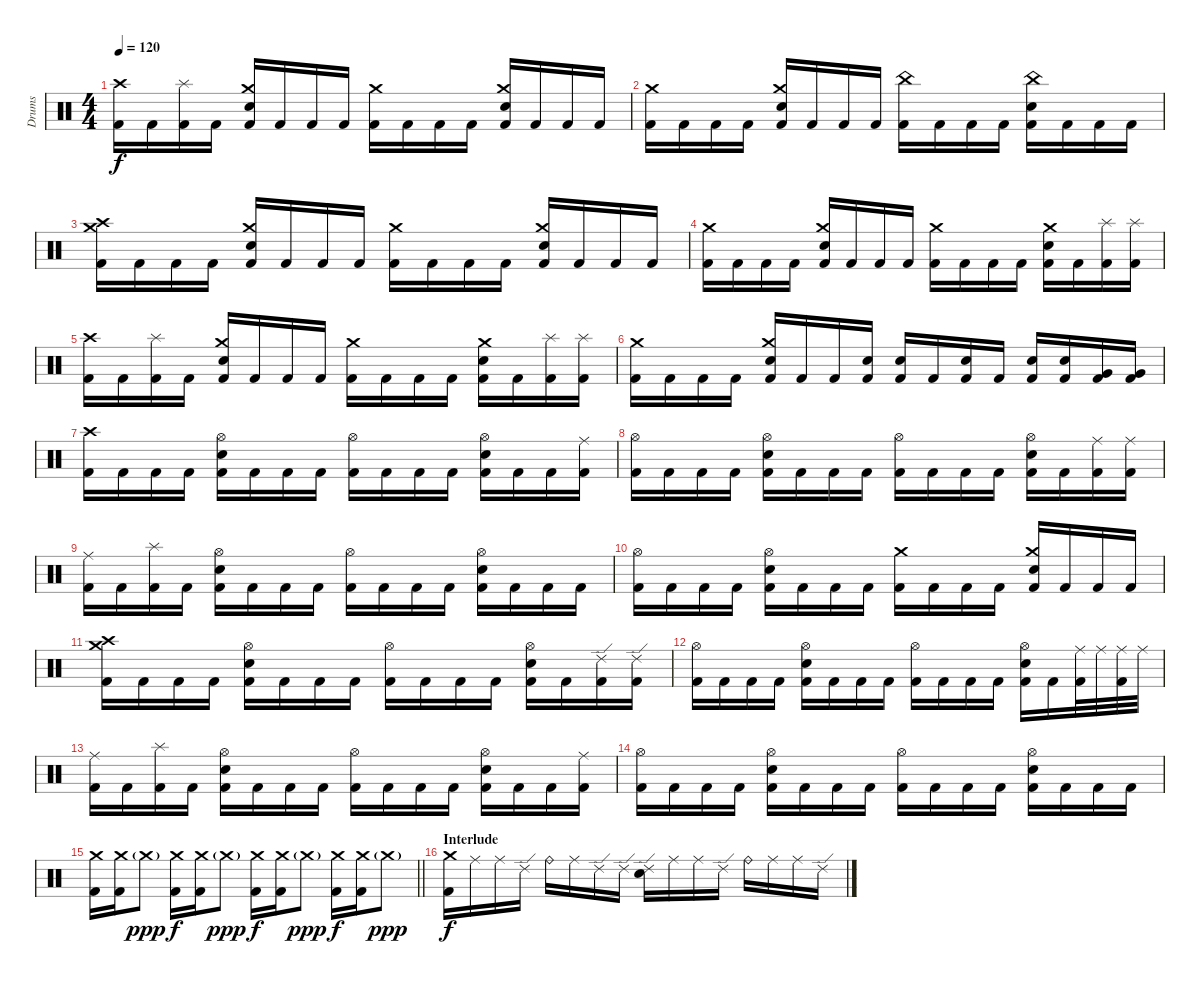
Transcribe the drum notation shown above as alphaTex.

\track ("Drums" "Drums") {instrument percussion}
\staff {score}
\articulation defaults
\ts (4 4)
\tempo 120
\clef neutral
\ks c
("Crash high (hit)" "Kick (hit) 2").16{dy f} "Kick (hit) 2".16 ("Splash (hit)" "Kick (hit) 2").16 "Kick (hit) 2".16 ("Crash medium (hit)" "Electric Snare (hit)" "Kick (hit) 2").16 "Kick (hit) 2".16 "Kick (hit) 2".16 "Kick (hit) 2".16 ("Crash medium (hit)" "Kick (hit) 2").16 "Kick (hit) 2".16 "Kick (hit) 2".16 "Kick (hit) 2".16 ("Crash medium (hit)" "Electric Snare (hit)" "Kick (hit) 2").16 "Kick (hit) 2".16 "Kick (hit) 2".16 "Kick (hit) 2".16 |
("Crash medium (hit)" "Kick (hit) 2").16 "Kick (hit) 2".16 "Kick (hit) 2".16 "Kick (hit) 2".16 ("Crash medium (hit)" "Electric Snare (hit)" "Kick (hit) 2").16 "Kick (hit) 2".16 "Kick (hit) 2".16 "Kick (hit) 2".16 ("China (hit)" "Kick (hit) 2").16 "Kick (hit) 2".16 "Kick (hit) 2".16 "Kick (hit) 2".16 ("China (hit)" "Electric Snare (hit)" "Kick (hit) 2").16 "Kick (hit) 2".16 "Kick (hit) 2".16 "Kick (hit) 2".16 |
("Crash medium (hit)" "Crash high (hit)" "Kick (hit) 2").16 "Kick (hit) 2".16 "Kick (hit) 2".16 "Kick (hit) 2".16 ("Crash medium (hit)" "Electric Snare (hit)" "Kick (hit) 2").16 "Kick (hit) 2".16 "Kick (hit) 2".16 "Kick (hit) 2".16 ("Crash medium (hit)" "Kick (hit) 2").16 "Kick (hit) 2".16 "Kick (hit) 2".16 "Kick (hit) 2".16 ("Crash medium (hit)" "Electric Snare (hit)" "Kick (hit) 2").16 "Kick (hit) 2".16 "Kick (hit) 2".16 "Kick (hit) 2".16 |
("Crash medium (hit)" "Kick (hit) 2").16 "Kick (hit) 2".16 "Kick (hit) 2".16 "Kick (hit) 2".16 ("Crash medium (hit)" "Electric Snare (hit)" "Kick (hit) 2").16 "Kick (hit) 2".16 "Kick (hit) 2".16 "Kick (hit) 2".16 ("Crash medium (hit)" "Kick (hit) 2").16 "Kick (hit) 2".16 "Kick (hit) 2".16 "Kick (hit) 2".16 ("Crash medium (hit)" "Electric Snare (hit)" "Kick (hit) 2").16 "Kick (hit) 2".16 ("Splash (hit)" "Kick (hit) 2").16 ("Splash (hit)" "Kick (hit) 2").16 |
("Crash high (hit)" "Kick (hit) 2").16 "Kick (hit) 2".16 ("Splash (hit)" "Kick (hit) 2").16 "Kick (hit) 2".16 ("Crash medium (hit)" "Electric Snare (hit)" "Kick (hit) 2").16 "Kick (hit) 2".16 "Kick (hit) 2".16 "Kick (hit) 2".16 ("Crash medium (hit)" "Kick (hit) 2").16 "Kick (hit) 2".16 "Kick (hit) 2".16 "Kick (hit) 2".16 ("Crash medium (hit)" "Electric Snare (hit)" "Kick (hit) 2").16 "Kick (hit) 2".16 ("Splash (hit)" "Kick (hit) 2").16 ("Splash (hit)" "Kick (hit) 2").16 |
("Crash medium (hit)" "Kick (hit) 2").16 "Kick (hit) 2".16 "Kick (hit) 2".16 "Kick (hit) 2".16 ("Crash medium (hit)" "Electric Snare (hit)" "Kick (hit) 2").16 "Kick (hit) 2".16 "Kick (hit) 2".16 ("Electric Snare (hit)" "Kick (hit) 2").16 ("Electric Snare (hit)" "Kick (hit) 2").16 "Kick (hit) 2".16 ("Electric Snare (hit)" "Kick (hit) 2").16 "Kick (hit) 2".16 ("Electric Snare (hit)" "Kick (hit) 2").16 ("Electric Snare (hit)" "Kick (hit) 2").16 ("Very Low Tom (hit)" "Kick (hit) 2").16 ("Very Low Tom (hit)" "Kick (hit) 2").16 |
("Crash high (hit)" "Kick (hit) 2").16 "Kick (hit) 2".16 "Kick (hit) 2".16 "Kick (hit) 2".16 ("Hi-Hat (open)" "Electric Snare (hit)" "Kick (hit) 2").16 "Kick (hit) 2".16 "Kick (hit) 2".16 "Kick (hit) 2".16 ("Hi-Hat (open)" "Kick (hit) 2").16 "Kick (hit) 2".16 "Kick (hit) 2".16 "Kick (hit) 2".16 ("Hi-Hat (open)" "Electric Snare (hit)" "Kick (hit) 2").16 "Kick (hit) 2".16 "Kick (hit) 2".16 ("Ride (middle)" "Kick (hit) 2").16 |
("Hi-Hat (open)" "Kick (hit) 2").16 "Kick (hit) 2".16 "Kick (hit) 2".16 "Kick (hit) 2".16 ("Hi-Hat (open)" "Electric Snare (hit)" "Kick (hit) 2").16 "Kick (hit) 2".16 "Kick (hit) 2".16 "Kick (hit) 2".16 ("Hi-Hat (open)" "Kick (hit) 2").16 "Kick (hit) 2".16 "Kick (hit) 2".16 "Kick (hit) 2".16 ("Hi-Hat (open)" "Electric Snare (hit)" "Kick (hit) 2").16 "Kick (hit) 2".16 ("Ride (middle)" "Kick (hit) 2").16 ("Ride (middle)" "Kick (hit) 2").16 |
("Ride (middle)" "Kick (hit) 2").16 "Kick (hit) 2".16 ("Splash (hit)" "Kick (hit) 2").16 "Kick (hit) 2".16 ("Hi-Hat (open)" "Electric Snare (hit)" "Kick (hit) 2").16 "Kick (hit) 2".16 "Kick (hit) 2".16 "Kick (hit) 2".16 ("Hi-Hat (open)" "Kick (hit) 2").16 "Kick (hit) 2".16 "Kick (hit) 2".16 "Kick (hit) 2".16 ("Hi-Hat (open)" "Electric Snare (hit)" "Kick (hit) 2").16 "Kick (hit) 2".16 "Kick (hit) 2".16 "Kick (hit) 2".16 |
("Hi-Hat (open)" "Kick (hit) 2").16 "Kick (hit) 2".16 "Kick (hit) 2".16 "Kick (hit) 2".16 ("Hi-Hat (open)" "Electric Snare (hit)" "Kick (hit) 2").16 "Kick (hit) 2".16 "Kick (hit) 2".16 "Kick (hit) 2".16 ("Crash medium (hit)" "Kick (hit) 2").16 "Kick (hit) 2".16 "Kick (hit) 2".16 "Kick (hit) 2".16 ("Crash medium (hit)" "Electric Snare (hit)" "Kick (hit) 2").16 "Kick (hit) 2".16 "Kick (hit) 2".16 "Kick (hit) 2".16 |
("Crash medium (hit)" "Crash high (hit)" "Kick (hit) 2").16 "Kick (hit) 2".16 "Kick (hit) 2".16 "Kick (hit) 2".16 ("Hi-Hat (open)" "Electric Snare (hit)" "Kick (hit) 2").16 "Kick (hit) 2".16 "Kick (hit) 2".16 "Kick (hit) 2".16 ("Hi-Hat (open)" "Kick (hit) 2").16 "Kick (hit) 2".16 "Kick (hit) 2".16 "Kick (hit) 2".16 ("Hi-Hat (open)" "Electric Snare (hit)" "Kick (hit) 2").16 "Kick (hit) 2".16 ("Ride (edge) 2" "Kick (hit) 2").16 ("Ride (edge) 2" "Kick (hit) 2").16 |
("Hi-Hat (open)" "Kick (hit) 2").16 "Kick (hit) 2".16 "Kick (hit) 2".16 "Kick (hit) 2".16 ("Hi-Hat (open)" "Electric Snare (hit)" "Kick (hit) 2").16 "Kick (hit) 2".16 "Kick (hit) 2".16 "Kick (hit) 2".16 ("Hi-Hat (open)" "Kick (hit) 2").16 "Kick (hit) 2".16 "Kick (hit) 2".16 "Kick (hit) 2".16 ("Hi-Hat (open)" "Electric Snare (hit)" "Kick (hit) 2").16 "Kick (hit) 2".16 ("Ride (middle)" "Kick (hit) 2").32 "Ride (middle)".32 ("Ride (middle)" "Kick (hit) 2").32 "Ride (middle)".32 |
("Ride (middle)" "Kick (hit) 2").16 "Kick (hit) 2".16 ("Splash (hit)" "Kick (hit) 2").16 "Kick (hit) 2".16 ("Hi-Hat (open)" "Electric Snare (hit)" "Kick (hit) 2").16 "Kick (hit) 2".16 "Kick (hit) 2".16 "Kick (hit) 2".16 ("Hi-Hat (open)" "Kick (hit) 2").16 "Kick (hit) 2".16 "Kick (hit) 2".16 "Kick (hit) 2".16 ("Hi-Hat (open)" "Electric Snare (hit)" "Kick (hit) 2").16 "Kick (hit) 2".16 "Kick (hit) 2".16 ("Ride (middle)" "Kick (hit) 2").16 |
("Hi-Hat (open)" "Kick (hit) 2").16 "Kick (hit) 2".16 "Kick (hit) 2".16 "Kick (hit) 2".16 ("Hi-Hat (open)" "Electric Snare (hit)" "Kick (hit) 2").16 "Kick (hit) 2".16 "Kick (hit) 2".16 "Kick (hit) 2".16 ("Hi-Hat (open)" "Kick (hit) 2").16 "Kick (hit) 2".16 "Kick (hit) 2".16 "Kick (hit) 2".16 ("Hi-Hat (open)" "Electric Snare (hit)" "Kick (hit) 2").16 "Kick (hit) 2".16 "Kick (hit) 2".16 "Kick (hit) 2".16 |
\barLineRight lightlight
("Crash medium (hit)" "Kick (hit) 2").16 ("Crash medium (hit)" "Kick (hit) 2").16 "Crash medium (hit)"{g}.8{dy ppp} ("Crash medium (hit)" "Kick (hit) 2").16{dy f} ("Crash medium (hit)" "Kick (hit) 2").16 "Crash medium (hit)"{g}.8{dy ppp} ("Crash medium (hit)" "Kick (hit) 2").16{dy f} ("Crash medium (hit)" "Kick (hit) 2").16 "Crash medium (hit)"{g}.8{dy ppp} ("Crash medium (hit)" "Kick (hit) 2").16{dy f} ("Crash medium (hit)" "Kick (hit) 2").16 "Crash medium (hit)"{g}.8{dy ppp} |
\section ("" "Interlude")
("Crash medium (hit)" "Kick (hit) 2").16{dy f} "Ride (middle)".16 "Ride (middle)".16 "Ride (edge) 2".16 "Ride (bell)".16 "Ride (middle)".16 "Ride (edge) 2".16 "Ride (edge) 2".16 ("Ride (edge) 2" "Electric Snare (hit)").16 "Ride (middle)".16 "Ride (middle)".16 "Ride (edge) 2".16 "Ride (bell)".16 "Ride (middle)".16 "Ride (middle)".16 "Ride (edge) 2".16
